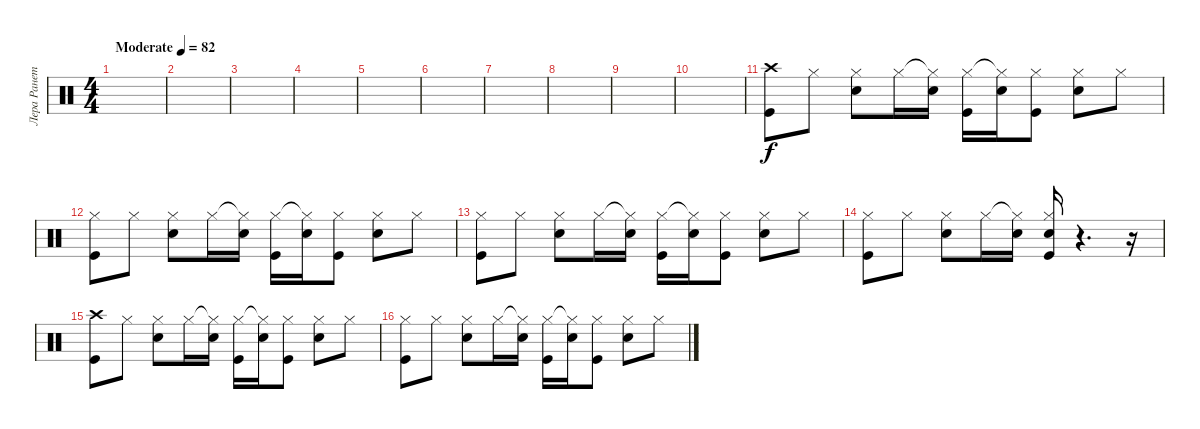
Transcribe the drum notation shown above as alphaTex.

\track ("Лера Ранетка" "Лера Ранет") {instrument percussion}
\staff {score}
\articulation defaults
\ts (4 4)
\tempo (82 "Moderate")
\clef neutral
\ks c
|
|
|
|
|
|
|
|
|
|
("Crash high (hit)" "Kick (hit)").8 "Hi-Hat (closed)".8 ("Hi-Hat (closed)" "Electric Snare (hit)").8 "Hi-Hat (closed)".16 ("Hi-Hat (closed)"{t} "Electric Snare (hit)").16 ("Hi-Hat (closed)" "Kick (hit)").16 ("Hi-Hat (closed)"{t} "Electric Snare (hit)").16 ("Hi-Hat (closed)" "Kick (hit)").8 ("Hi-Hat (closed)" "Electric Snare (hit)").8 "Hi-Hat (closed)".8 |
("Hi-Hat (closed)" "Kick (hit)").8 "Hi-Hat (closed)".8 ("Hi-Hat (closed)" "Electric Snare (hit)").8 "Hi-Hat (closed)".16 ("Hi-Hat (closed)"{t} "Electric Snare (hit)").16 ("Hi-Hat (closed)" "Kick (hit)").16 ("Hi-Hat (closed)"{t} "Electric Snare (hit)").16 ("Hi-Hat (closed)" "Kick (hit)").8 ("Hi-Hat (closed)" "Electric Snare (hit)").8 "Hi-Hat (closed)".8 |
("Hi-Hat (closed)" "Kick (hit)").8 "Hi-Hat (closed)".8 ("Hi-Hat (closed)" "Electric Snare (hit)").8 "Hi-Hat (closed)".16 ("Hi-Hat (closed)"{t} "Electric Snare (hit)").16 ("Hi-Hat (closed)" "Kick (hit)").16 ("Hi-Hat (closed)"{t} "Electric Snare (hit)").16 ("Hi-Hat (closed)" "Kick (hit)").8 ("Hi-Hat (closed)" "Electric Snare (hit)").8 "Hi-Hat (closed)".8 |
("Hi-Hat (closed)" "Kick (hit)").8 "Hi-Hat (closed)".8 ("Hi-Hat (closed)" "Electric Snare (hit)").8 "Hi-Hat (closed)".16 ("Hi-Hat (closed)"{t} "Electric Snare (hit)").16 ("Hi-Hat (closed)" "Electric Snare (hit)" "Kick (hit)").16 r.4{d} r.16 |
("Crash high (hit)" "Kick (hit)").8 "Hi-Hat (closed)".8 ("Hi-Hat (closed)" "Electric Snare (hit)").8 "Hi-Hat (closed)".16 ("Hi-Hat (closed)"{t} "Electric Snare (hit)").16 ("Hi-Hat (closed)" "Kick (hit)").16 ("Hi-Hat (closed)"{t} "Electric Snare (hit)").16 ("Hi-Hat (closed)" "Kick (hit)").8 ("Hi-Hat (closed)" "Electric Snare (hit)").8 "Hi-Hat (closed)".8 |
("Hi-Hat (closed)" "Kick (hit)").8 "Hi-Hat (closed)".8 ("Hi-Hat (closed)" "Electric Snare (hit)").8 "Hi-Hat (closed)".16 ("Hi-Hat (closed)"{t} "Electric Snare (hit)").16 ("Hi-Hat (closed)" "Kick (hit)").16 ("Hi-Hat (closed)"{t} "Electric Snare (hit)").16 ("Hi-Hat (closed)" "Kick (hit)").8 ("Hi-Hat (closed)" "Electric Snare (hit)").8 "Hi-Hat (closed)".8
